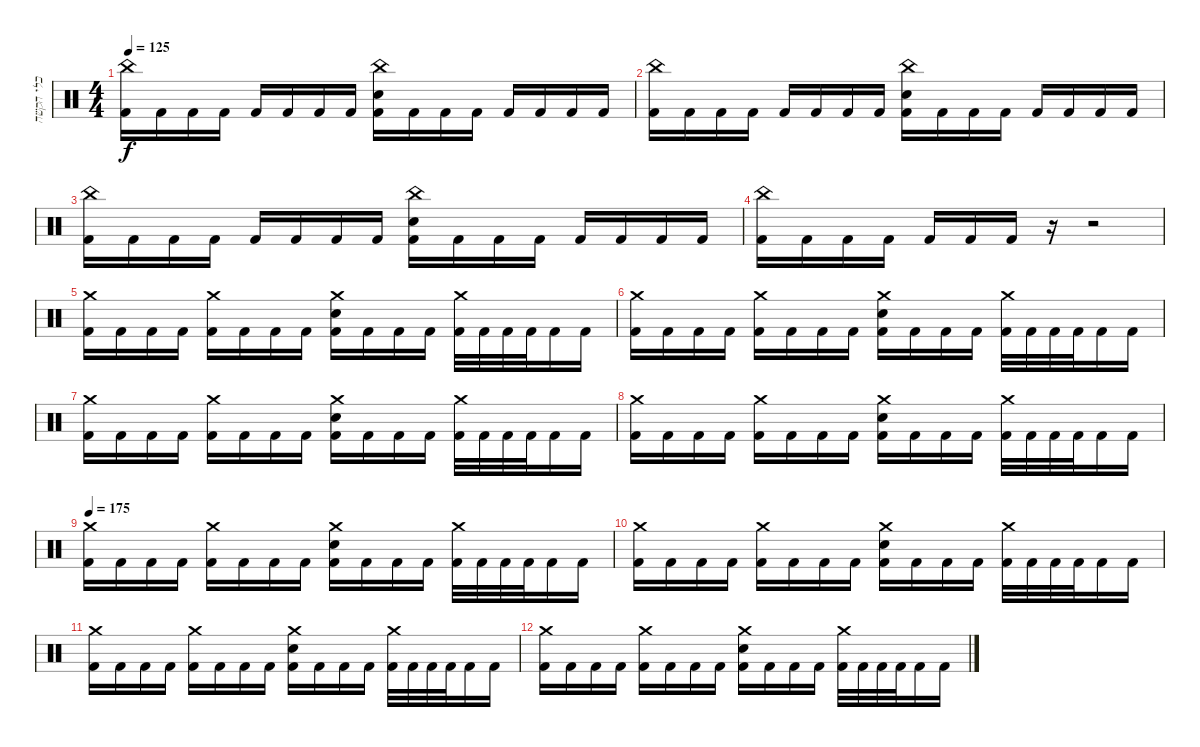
\track ("כלי הקשה" "כלי הקשה") {instrument percussion}
\staff {score}
\articulation defaults
\ts (4 4)
\tempo 125
\clef neutral
\ks c
("China (hit)" "Kick (hit) 2").16{dy f} "Kick (hit) 2".16 "Kick (hit) 2".16 "Kick (hit) 2".16 "Kick (hit) 2".16 "Kick (hit) 2".16 "Kick (hit) 2".16 "Kick (hit) 2".16 ("China (hit)" "Snare (hit) 2" "Kick (hit) 2").16 "Kick (hit) 2".16 "Kick (hit) 2".16 "Kick (hit) 2".16 "Kick (hit) 2".16 "Kick (hit) 2".16 "Kick (hit) 2".16 "Kick (hit) 2".16 |
("China (hit)" "Kick (hit) 2").16 "Kick (hit) 2".16 "Kick (hit) 2".16 "Kick (hit) 2".16 "Kick (hit) 2".16 "Kick (hit) 2".16 "Kick (hit) 2".16 "Kick (hit) 2".16 ("China (hit)" "Snare (hit) 2" "Kick (hit) 2").16 "Kick (hit) 2".16 "Kick (hit) 2".16 "Kick (hit) 2".16 "Kick (hit) 2".16 "Kick (hit) 2".16 "Kick (hit) 2".16 "Kick (hit) 2".16 |
("China (hit)" "Kick (hit) 2").16 "Kick (hit) 2".16 "Kick (hit) 2".16 "Kick (hit) 2".16 "Kick (hit) 2".16 "Kick (hit) 2".16 "Kick (hit) 2".16 "Kick (hit) 2".16 ("China (hit)" "Snare (hit) 2" "Kick (hit) 2").16 "Kick (hit) 2".16 "Kick (hit) 2".16 "Kick (hit) 2".16 "Kick (hit) 2".16 "Kick (hit) 2".16 "Kick (hit) 2".16 "Kick (hit) 2".16 |
("China (hit)" "Kick (hit) 2").16 "Kick (hit) 2".16 "Kick (hit) 2".16 "Kick (hit) 2".16 "Kick (hit) 2".16 "Kick (hit) 2".16 "Kick (hit) 2".16 r.16 r.2 |
("Crash medium (hit)" "Kick (hit) 2").16 "Kick (hit) 2".16 "Kick (hit) 2".16 "Kick (hit) 2".16 ("Crash medium (hit)" "Kick (hit) 2").16 "Kick (hit) 2".16 "Kick (hit) 2".16 "Kick (hit) 2".16 ("Crash medium (hit)" "Snare (hit) 2" "Kick (hit) 2").16 "Kick (hit) 2".16 "Kick (hit) 2".16 "Kick (hit) 2".16 ("Crash medium (hit)" "Kick (hit) 2").32 "Kick (hit) 2".32 "Kick (hit) 2".32 "Kick (hit) 2".32 "Kick (hit) 2".16 "Kick (hit) 2".16 |
("Crash medium (hit)" "Kick (hit) 2").16 "Kick (hit) 2".16 "Kick (hit) 2".16 "Kick (hit) 2".16 ("Crash medium (hit)" "Kick (hit) 2").16 "Kick (hit) 2".16 "Kick (hit) 2".16 "Kick (hit) 2".16 ("Crash medium (hit)" "Snare (hit) 2" "Kick (hit) 2").16 "Kick (hit) 2".16 "Kick (hit) 2".16 "Kick (hit) 2".16 ("Crash medium (hit)" "Kick (hit) 2").32 "Kick (hit) 2".32 "Kick (hit) 2".32 "Kick (hit) 2".32 "Kick (hit) 2".16 "Kick (hit) 2".16 |
("Crash medium (hit)" "Kick (hit) 2").16 "Kick (hit) 2".16 "Kick (hit) 2".16 "Kick (hit) 2".16 ("Crash medium (hit)" "Kick (hit) 2").16 "Kick (hit) 2".16 "Kick (hit) 2".16 "Kick (hit) 2".16 ("Crash medium (hit)" "Snare (hit) 2" "Kick (hit) 2").16 "Kick (hit) 2".16 "Kick (hit) 2".16 "Kick (hit) 2".16 ("Crash medium (hit)" "Kick (hit) 2").32 "Kick (hit) 2".32 "Kick (hit) 2".32 "Kick (hit) 2".32 "Kick (hit) 2".16 "Kick (hit) 2".16 |
("Crash medium (hit)" "Kick (hit) 2").16 "Kick (hit) 2".16 "Kick (hit) 2".16 "Kick (hit) 2".16 ("Crash medium (hit)" "Kick (hit) 2").16 "Kick (hit) 2".16 "Kick (hit) 2".16 "Kick (hit) 2".16 ("Crash medium (hit)" "Snare (hit) 2" "Kick (hit) 2").16 "Kick (hit) 2".16 "Kick (hit) 2".16 "Kick (hit) 2".16 ("Crash medium (hit)" "Kick (hit) 2").32 "Kick (hit) 2".32 "Kick (hit) 2".32 "Kick (hit) 2".32 "Kick (hit) 2".16 "Kick (hit) 2".16 |
\tempo 175
("Crash medium (hit)" "Kick (hit) 2").16 "Kick (hit) 2".16 "Kick (hit) 2".16 "Kick (hit) 2".16 ("Crash medium (hit)" "Kick (hit) 2").16 "Kick (hit) 2".16 "Kick (hit) 2".16 "Kick (hit) 2".16 ("Crash medium (hit)" "Snare (hit) 2" "Kick (hit) 2").16 "Kick (hit) 2".16 "Kick (hit) 2".16 "Kick (hit) 2".16 ("Crash medium (hit)" "Kick (hit) 2").32 "Kick (hit) 2".32 "Kick (hit) 2".32 "Kick (hit) 2".32 "Kick (hit) 2".16 "Kick (hit) 2".16 |
("Crash medium (hit)" "Kick (hit) 2").16 "Kick (hit) 2".16 "Kick (hit) 2".16 "Kick (hit) 2".16 ("Crash medium (hit)" "Kick (hit) 2").16 "Kick (hit) 2".16 "Kick (hit) 2".16 "Kick (hit) 2".16 ("Crash medium (hit)" "Snare (hit) 2" "Kick (hit) 2").16 "Kick (hit) 2".16 "Kick (hit) 2".16 "Kick (hit) 2".16 ("Crash medium (hit)" "Kick (hit) 2").32 "Kick (hit) 2".32 "Kick (hit) 2".32 "Kick (hit) 2".32 "Kick (hit) 2".16 "Kick (hit) 2".16 |
("Crash medium (hit)" "Kick (hit) 2").16 "Kick (hit) 2".16 "Kick (hit) 2".16 "Kick (hit) 2".16 ("Crash medium (hit)" "Kick (hit) 2").16 "Kick (hit) 2".16 "Kick (hit) 2".16 "Kick (hit) 2".16 ("Crash medium (hit)" "Snare (hit) 2" "Kick (hit) 2").16 "Kick (hit) 2".16 "Kick (hit) 2".16 "Kick (hit) 2".16 ("Crash medium (hit)" "Kick (hit) 2").32 "Kick (hit) 2".32 "Kick (hit) 2".32 "Kick (hit) 2".32 "Kick (hit) 2".16 "Kick (hit) 2".16 |
("Crash medium (hit)" "Kick (hit) 2").16 "Kick (hit) 2".16 "Kick (hit) 2".16 "Kick (hit) 2".16 ("Crash medium (hit)" "Kick (hit) 2").16 "Kick (hit) 2".16 "Kick (hit) 2".16 "Kick (hit) 2".16 ("Crash medium (hit)" "Snare (hit) 2" "Kick (hit) 2").16 "Kick (hit) 2".16 "Kick (hit) 2".16 "Kick (hit) 2".16 ("Crash medium (hit)" "Kick (hit) 2").32 "Kick (hit) 2".32 "Kick (hit) 2".32 "Kick (hit) 2".32 "Kick (hit) 2".16 "Kick (hit) 2".16
